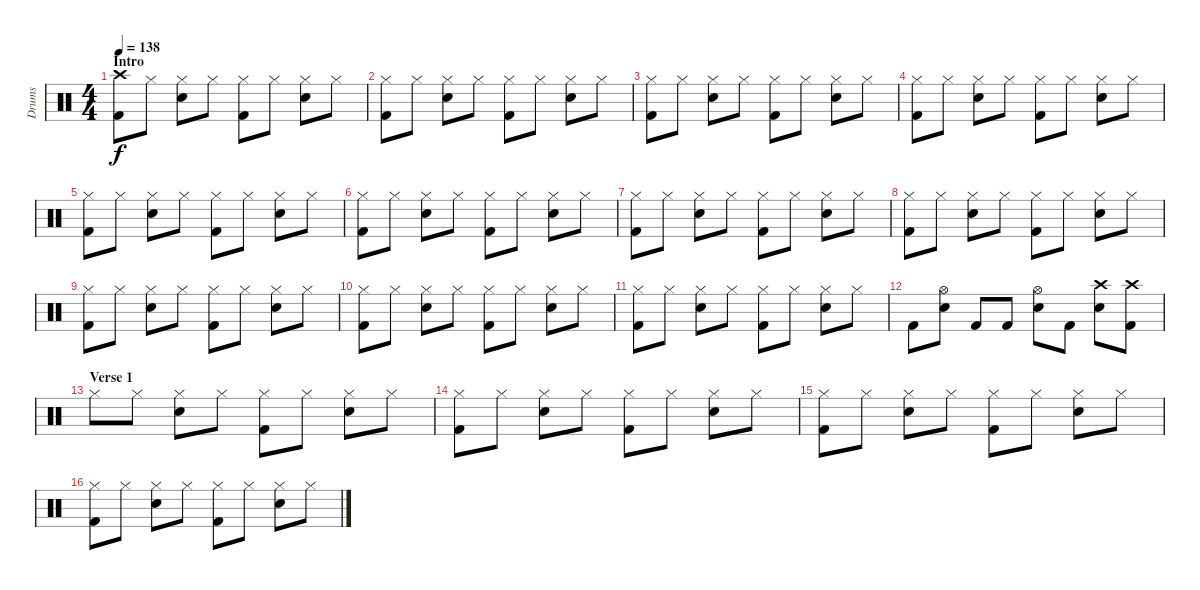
\track ("Drums" "Drums") {instrument percussion}
\staff {score}
\articulation defaults
\ts (4 4)
\section ("" "Intro")
\tempo 138
\clef neutral
\ks c
("Crash high (hit)" "Kick (hit) 2").8{dy f} "Hi-Hat (closed)".8 ("Hi-Hat (closed)" "Snare (hit) 2").8 "Hi-Hat (closed)".8 ("Hi-Hat (closed)" "Kick (hit) 2").8 "Hi-Hat (closed)".8 ("Hi-Hat (closed)" "Snare (hit) 2").8 "Hi-Hat (closed)".8 |
("Hi-Hat (closed)" "Kick (hit) 2").8 "Hi-Hat (closed)".8 ("Hi-Hat (closed)" "Snare (hit) 2").8 "Hi-Hat (closed)".8 ("Hi-Hat (closed)" "Kick (hit) 2").8 "Hi-Hat (closed)".8 ("Hi-Hat (closed)" "Snare (hit) 2").8 "Hi-Hat (closed)".8 |
("Hi-Hat (closed)" "Kick (hit) 2").8 "Hi-Hat (closed)".8 ("Hi-Hat (closed)" "Snare (hit) 2").8 "Hi-Hat (closed)".8 ("Hi-Hat (closed)" "Kick (hit) 2").8 "Hi-Hat (closed)".8 ("Hi-Hat (closed)" "Snare (hit) 2").8 "Hi-Hat (closed)".8 |
("Hi-Hat (closed)" "Kick (hit) 2").8 "Hi-Hat (closed)".8 ("Hi-Hat (closed)" "Snare (hit) 2").8 "Hi-Hat (closed)".8 ("Hi-Hat (closed)" "Kick (hit) 2").8 "Hi-Hat (closed)".8 ("Hi-Hat (closed)" "Snare (hit) 2").8 "Hi-Hat (closed)".8 |
("Hi-Hat (closed)" "Kick (hit) 2").8 "Hi-Hat (closed)".8 ("Hi-Hat (closed)" "Snare (hit) 2").8 "Hi-Hat (closed)".8 ("Hi-Hat (closed)" "Kick (hit) 2").8 "Hi-Hat (closed)".8 ("Hi-Hat (closed)" "Snare (hit) 2").8 "Hi-Hat (closed)".8 |
("Hi-Hat (closed)" "Kick (hit) 2").8 "Hi-Hat (closed)".8 ("Hi-Hat (closed)" "Snare (hit) 2").8 "Hi-Hat (closed)".8 ("Hi-Hat (closed)" "Kick (hit) 2").8 "Hi-Hat (closed)".8 ("Hi-Hat (closed)" "Snare (hit) 2").8 "Hi-Hat (closed)".8 |
("Hi-Hat (closed)" "Kick (hit) 2").8 "Hi-Hat (closed)".8 ("Hi-Hat (closed)" "Snare (hit) 2").8 "Hi-Hat (closed)".8 ("Hi-Hat (closed)" "Kick (hit) 2").8 "Hi-Hat (closed)".8 ("Hi-Hat (closed)" "Snare (hit) 2").8 "Hi-Hat (closed)".8 |
("Hi-Hat (closed)" "Kick (hit) 2").8 "Hi-Hat (closed)".8 ("Hi-Hat (closed)" "Snare (hit) 2").8 "Hi-Hat (closed)".8 ("Hi-Hat (closed)" "Kick (hit) 2").8 "Hi-Hat (closed)".8 ("Hi-Hat (closed)" "Snare (hit) 2").8 "Hi-Hat (closed)".8 |
("Hi-Hat (closed)" "Kick (hit) 2").8 "Hi-Hat (closed)".8 ("Hi-Hat (closed)" "Snare (hit) 2").8 "Hi-Hat (closed)".8 ("Hi-Hat (closed)" "Kick (hit) 2").8 "Hi-Hat (closed)".8 ("Hi-Hat (closed)" "Snare (hit) 2").8 "Hi-Hat (closed)".8 |
("Hi-Hat (closed)" "Kick (hit) 2").8 "Hi-Hat (closed)".8 ("Hi-Hat (closed)" "Snare (hit) 2").8 "Hi-Hat (closed)".8 ("Hi-Hat (closed)" "Kick (hit) 2").8 "Hi-Hat (closed)".8 ("Hi-Hat (closed)" "Snare (hit) 2").8 "Hi-Hat (closed)".8 |
("Hi-Hat (closed)" "Kick (hit) 2").8 "Hi-Hat (closed)".8 ("Hi-Hat (closed)" "Snare (hit) 2").8 "Hi-Hat (closed)".8 ("Hi-Hat (closed)" "Kick (hit) 2").8 "Hi-Hat (closed)".8 ("Hi-Hat (closed)" "Snare (hit) 2").8 "Hi-Hat (closed)".8 |
"Kick (hit) 2".8 ("Hi-Hat (open)" "Snare (hit) 2").8 "Kick (hit) 2".8 "Kick (hit) 2".8 ("Hi-Hat (open)" "Snare (hit) 2").8 "Kick (hit) 2".8 ("Crash high (hit)" "Snare (hit) 2").8 ("Crash high (hit)" "Kick (hit) 2").8 |
\section ("" "Verse 1")
"Hi-Hat (closed)".8 "Hi-Hat (closed)".8 ("Hi-Hat (closed)" "Snare (hit) 2").8 "Hi-Hat (closed)".8 ("Hi-Hat (closed)" "Kick (hit) 2").8 "Hi-Hat (closed)".8 ("Hi-Hat (closed)" "Snare (hit) 2").8 "Hi-Hat (closed)".8 |
("Hi-Hat (closed)" "Kick (hit) 2").8 "Hi-Hat (closed)".8 ("Hi-Hat (closed)" "Snare (hit) 2").8 "Hi-Hat (closed)".8 ("Hi-Hat (closed)" "Kick (hit) 2").8 "Hi-Hat (closed)".8 ("Hi-Hat (closed)" "Snare (hit) 2").8 "Hi-Hat (closed)".8 |
("Hi-Hat (closed)" "Kick (hit) 2").8 "Hi-Hat (closed)".8 ("Hi-Hat (closed)" "Snare (hit) 2").8 "Hi-Hat (closed)".8 ("Hi-Hat (closed)" "Kick (hit) 2").8 "Hi-Hat (closed)".8 ("Hi-Hat (closed)" "Snare (hit) 2").8 "Hi-Hat (closed)".8 |
("Hi-Hat (closed)" "Kick (hit) 2").8 "Hi-Hat (closed)".8 ("Hi-Hat (closed)" "Snare (hit) 2").8 "Hi-Hat (closed)".8 ("Hi-Hat (closed)" "Kick (hit) 2").8 "Hi-Hat (closed)".8 ("Hi-Hat (closed)" "Snare (hit) 2").8 "Hi-Hat (closed)".8
